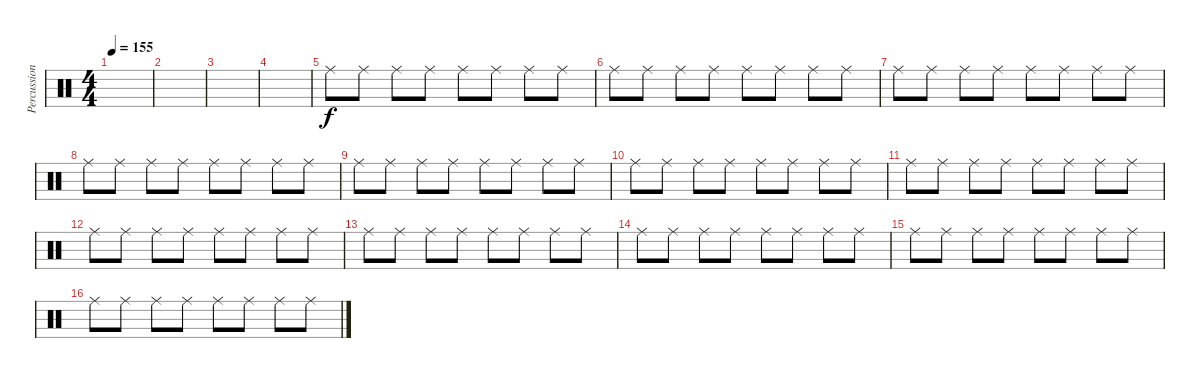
\track ("Percussion 2" "Percussion") {instrument percussion}
\staff {score}
\articulation defaults
\ts (4 4)
\tempo 155
\clef neutral
\ks c
|
|
|
|
"Ride (middle)".8 "Ride (middle)".8 "Ride (middle)".8 "Ride (middle)".8 "Ride (middle)".8 "Ride (middle)".8 "Ride (middle)".8 "Ride (middle)".8 |
"Ride (middle)".8 "Ride (middle)".8 "Ride (middle)".8 "Ride (middle)".8 "Ride (middle)".8 "Ride (middle)".8 "Ride (middle)".8 "Ride (middle)".8 |
"Ride (middle)".8 "Ride (middle)".8 "Ride (middle)".8 "Ride (middle)".8 "Ride (middle)".8 "Ride (middle)".8 "Ride (middle)".8 "Ride (middle)".8 |
"Ride (middle)".8 "Ride (middle)".8 "Ride (middle)".8 "Ride (middle)".8 "Ride (middle)".8 "Ride (middle)".8 "Ride (middle)".8 "Ride (middle)".8 |
"Ride (middle)".8 "Ride (middle)".8 "Ride (middle)".8 "Ride (middle)".8 "Ride (middle)".8 "Ride (middle)".8 "Ride (middle)".8 "Ride (middle)".8 |
"Ride (middle)".8 "Ride (middle)".8 "Ride (middle)".8 "Ride (middle)".8 "Ride (middle)".8 "Ride (middle)".8 "Ride (middle)".8 "Ride (middle)".8 |
"Ride (middle)".8 "Ride (middle)".8 "Ride (middle)".8 "Ride (middle)".8 "Ride (middle)".8 "Ride (middle)".8 "Ride (middle)".8 "Ride (middle)".8 |
"Ride (middle)".8 "Ride (middle)".8 "Ride (middle)".8 "Ride (middle)".8 "Ride (middle)".8 "Ride (middle)".8 "Ride (middle)".8 "Ride (middle)".8 |
"Ride (middle)".8 "Ride (middle)".8 "Ride (middle)".8 "Ride (middle)".8 "Ride (middle)".8 "Ride (middle)".8 "Ride (middle)".8 "Ride (middle)".8 |
"Ride (middle)".8 "Ride (middle)".8 "Ride (middle)".8 "Ride (middle)".8 "Ride (middle)".8 "Ride (middle)".8 "Ride (middle)".8 "Ride (middle)".8 |
"Ride (middle)".8 "Ride (middle)".8 "Ride (middle)".8 "Ride (middle)".8 "Ride (middle)".8 "Ride (middle)".8 "Ride (middle)".8 "Ride (middle)".8 |
"Ride (middle)".8 "Ride (middle)".8 "Ride (middle)".8 "Ride (middle)".8 "Ride (middle)".8 "Ride (middle)".8 "Ride (middle)".8 "Ride (middle)".8
